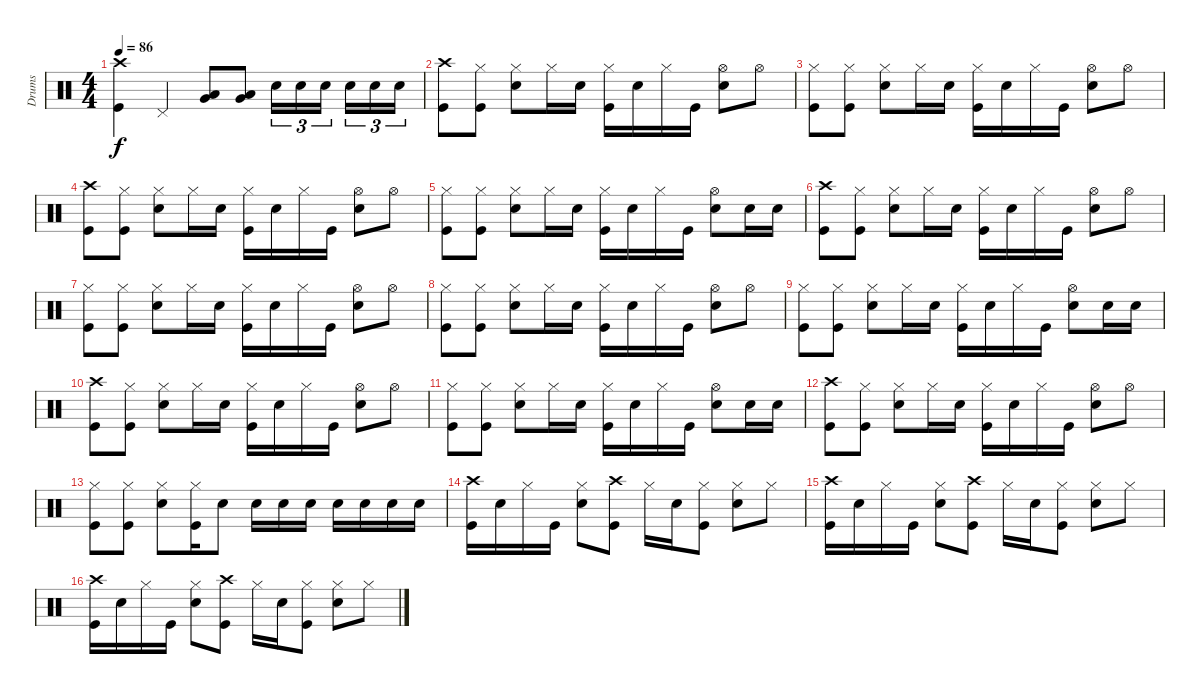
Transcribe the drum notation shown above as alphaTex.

\track ("Drums" "Drums") {instrument percussion}
\staff {score}
\articulation defaults
\ts (4 4)
\tempo 86
\clef neutral
\ks c
("Crash high (hit)" "Kick (hit)").4{dy f} "Pedal Hi-Hat (hit)".4 ("Very Low Tom (hit)" "Low Floor Tom (hit)").8 ("Very Low Tom (hit)" "Low Floor Tom (hit)").8 "Snare (hit) 2".16{tu (3 2)} "Snare (hit) 2".16{tu (3 2)} "Snare (hit) 2".16{tu (3 2) beam splitsecondary} "Snare (hit) 2".16{tu (3 2)} "Snare (hit) 2".16{tu (3 2)} "Snare (hit) 2".16{tu (3 2)} |
("Crash high (hit)" "Kick (hit)").8 ("Hi-Hat (closed)" "Kick (hit)").8 ("Hi-Hat (closed)" "Snare (hit) 2").8 "Hi-Hat (closed)".16 "Snare (hit) 2".16 ("Hi-Hat (closed)" "Kick (hit)").16 "Snare (hit) 2".16 "Hi-Hat (closed)".16 "Kick (hit)".16 ("Hi-Hat (open)" "Snare (hit) 2").8 "Hi-Hat (open)".8 |
("Hi-Hat (closed)" "Kick (hit)").8 ("Hi-Hat (closed)" "Kick (hit)").8 ("Hi-Hat (closed)" "Snare (hit) 2").8 "Hi-Hat (closed)".16 "Snare (hit) 2".16 ("Hi-Hat (closed)" "Kick (hit)").16 "Snare (hit) 2".16 "Hi-Hat (closed)".16 "Kick (hit)".16 ("Hi-Hat (open)" "Snare (hit) 2").8 "Hi-Hat (open)".8 |
("Crash high (hit)" "Kick (hit)").8 ("Hi-Hat (closed)" "Kick (hit)").8 ("Hi-Hat (closed)" "Snare (hit) 2").8 "Hi-Hat (closed)".16 "Snare (hit) 2".16 ("Hi-Hat (closed)" "Kick (hit)").16 "Snare (hit) 2".16 "Hi-Hat (closed)".16 "Kick (hit)".16 ("Hi-Hat (open)" "Snare (hit) 2").8 "Hi-Hat (open)".8 |
("Hi-Hat (closed)" "Kick (hit)").8 ("Hi-Hat (closed)" "Kick (hit)").8 ("Hi-Hat (closed)" "Snare (hit) 2").8 "Hi-Hat (closed)".16 "Snare (hit) 2".16 ("Hi-Hat (closed)" "Kick (hit)").16 "Snare (hit) 2".16 "Hi-Hat (closed)".16 "Kick (hit)".16 ("Hi-Hat (open)" "Snare (hit) 2").8 "Snare (hit) 2".16 "Snare (hit) 2".16 |
("Crash high (hit)" "Kick (hit)").8 ("Hi-Hat (closed)" "Kick (hit)").8 ("Hi-Hat (closed)" "Snare (hit) 2").8 "Hi-Hat (closed)".16 "Snare (hit) 2".16 ("Hi-Hat (closed)" "Kick (hit)").16 "Snare (hit) 2".16 "Hi-Hat (closed)".16 "Kick (hit)".16 ("Hi-Hat (open)" "Snare (hit) 2").8 "Hi-Hat (open)".8 |
("Hi-Hat (closed)" "Kick (hit)").8 ("Hi-Hat (closed)" "Kick (hit)").8 ("Hi-Hat (closed)" "Snare (hit) 2").8 "Hi-Hat (closed)".16 "Snare (hit) 2".16 ("Hi-Hat (closed)" "Kick (hit)").16 "Snare (hit) 2".16 "Hi-Hat (closed)".16 "Kick (hit)".16 ("Hi-Hat (open)" "Snare (hit) 2").8 "Hi-Hat (open)".8 |
("Hi-Hat (closed)" "Kick (hit)").8 ("Hi-Hat (closed)" "Kick (hit)").8 ("Hi-Hat (closed)" "Snare (hit) 2").8 "Hi-Hat (closed)".16 "Snare (hit) 2".16 ("Hi-Hat (closed)" "Kick (hit)").16 "Snare (hit) 2".16 "Hi-Hat (closed)".16 "Kick (hit)".16 ("Hi-Hat (open)" "Snare (hit) 2").8 "Hi-Hat (open)".8 |
("Hi-Hat (closed)" "Kick (hit)").8 ("Hi-Hat (closed)" "Kick (hit)").8 ("Hi-Hat (closed)" "Snare (hit) 2").8 "Hi-Hat (closed)".16 "Snare (hit) 2".16 ("Hi-Hat (closed)" "Kick (hit)").16 "Snare (hit) 2".16 "Hi-Hat (closed)".16 "Kick (hit)".16 ("Hi-Hat (open)" "Snare (hit) 2").8 "Snare (hit) 2".16 "Snare (hit) 2".16 |
("Crash high (hit)" "Kick (hit)").8 ("Hi-Hat (closed)" "Kick (hit)").8 ("Hi-Hat (closed)" "Snare (hit) 2").8 "Hi-Hat (closed)".16 "Snare (hit) 2".16 ("Hi-Hat (closed)" "Kick (hit)").16 "Snare (hit) 2".16 "Hi-Hat (closed)".16 "Kick (hit)".16 ("Hi-Hat (open)" "Snare (hit) 2").8 "Hi-Hat (open)".8 |
("Hi-Hat (closed)" "Kick (hit)").8 ("Hi-Hat (closed)" "Kick (hit)").8 ("Hi-Hat (closed)" "Snare (hit) 2").8 "Hi-Hat (closed)".16 "Snare (hit) 2".16 ("Hi-Hat (closed)" "Kick (hit)").16 "Snare (hit) 2".16 "Hi-Hat (closed)".16 "Kick (hit)".16 ("Hi-Hat (open)" "Snare (hit) 2").8 "Snare (hit) 2".16 "Snare (hit) 2".16 |
("Crash high (hit)" "Kick (hit)").8 ("Hi-Hat (closed)" "Kick (hit)").8 ("Hi-Hat (closed)" "Snare (hit) 2").8 "Hi-Hat (closed)".16 "Snare (hit) 2".16 ("Hi-Hat (closed)" "Kick (hit)").16 "Snare (hit) 2".16 "Hi-Hat (closed)".16 "Kick (hit)".16 ("Hi-Hat (open)" "Snare (hit) 2").8 "Hi-Hat (open)".8 |
("Hi-Hat (closed)" "Kick (hit)").8 ("Hi-Hat (closed)" "Kick (hit)").8 ("Hi-Hat (closed)" "Snare (hit) 2").8 ("Hi-Hat (closed)" "Kick (hit)").16 "Snare (hit) 2".8 "Snare (hit) 2".16 "Snare (hit) 2".16 "Snare (hit) 2".16 "Snare (hit) 2".16 "Snare (hit) 2".16 "Snare (hit) 2".16 "Snare (hit) 2".16 |
("Crash high (hit)" "Kick (hit)").16 "Snare (hit) 2".16 "Hi-Hat (closed)".16 "Kick (hit)".16 ("Hi-Hat (closed)" "Snare (hit) 2").8 ("Crash high (hit)" "Kick (hit)").8 "Hi-Hat (closed)".16 "Snare (hit) 2".16 ("Hi-Hat (closed)" "Kick (hit)").8 ("Hi-Hat (closed)" "Snare (hit) 2").8 "Hi-Hat (closed)".8 |
("Crash high (hit)" "Kick (hit)").16 "Snare (hit) 2".16 "Hi-Hat (closed)".16 "Kick (hit)".16 ("Hi-Hat (closed)" "Snare (hit) 2").8 ("Crash high (hit)" "Kick (hit)").8 "Hi-Hat (closed)".16 "Snare (hit) 2".16 ("Hi-Hat (closed)" "Kick (hit)").8 ("Hi-Hat (closed)" "Snare (hit) 2").8 "Hi-Hat (closed)".8 |
("Crash high (hit)" "Kick (hit)").16 "Snare (hit) 2".16 "Hi-Hat (closed)".16 "Kick (hit)".16 ("Hi-Hat (closed)" "Snare (hit) 2").8 ("Crash high (hit)" "Kick (hit)").8 "Hi-Hat (closed)".16 "Snare (hit) 2".16 ("Hi-Hat (closed)" "Kick (hit)").8 ("Hi-Hat (closed)" "Snare (hit) 2").8 "Hi-Hat (closed)".8
